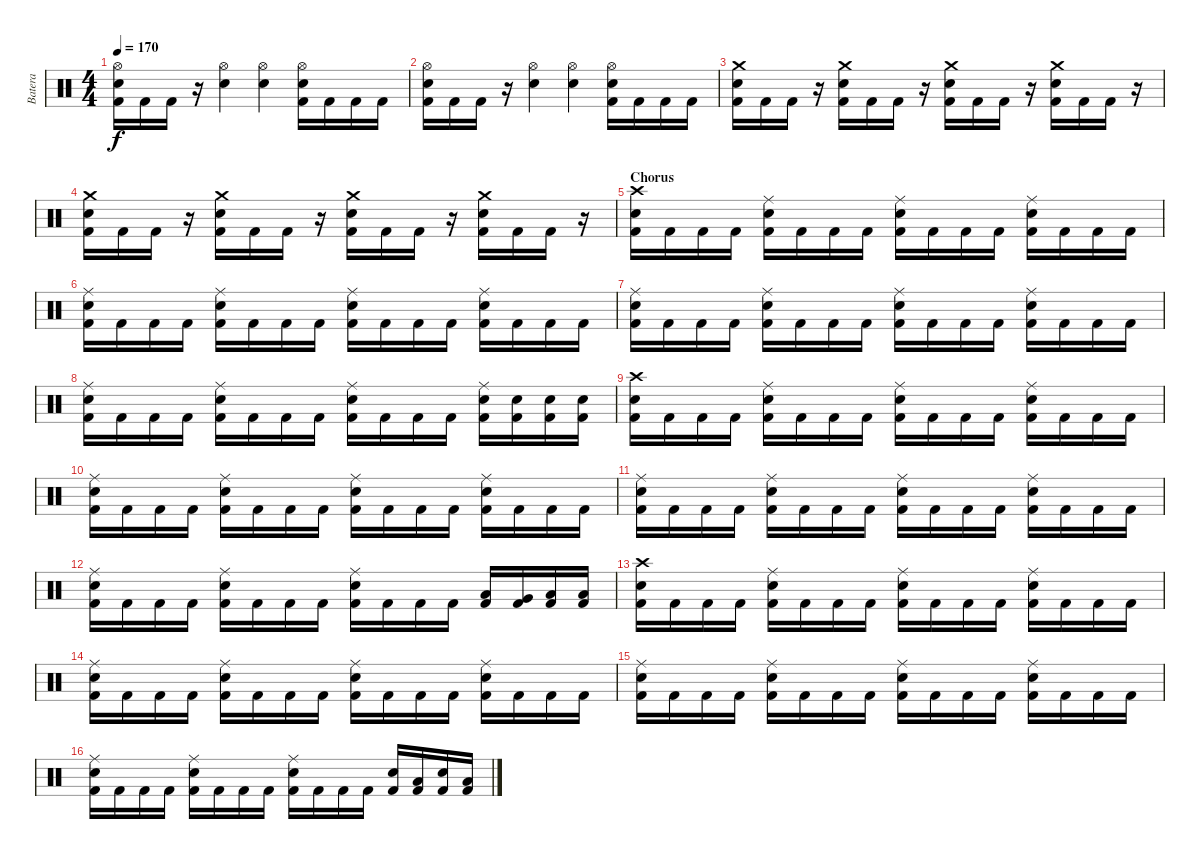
\track ("Batera" "Batera") {instrument percussion}
\staff {score}
\articulation defaults
\ts (4 4)
\tempo 170
\clef neutral
\ks c
("Hi-Hat (open)" "Electric Snare (hit)" "Kick (hit) 2").16{dy f} "Kick (hit) 2".16 "Kick (hit) 2".16 r.16 ("Hi-Hat (open)" "Electric Snare (hit)").4 ("Hi-Hat (open)" "Electric Snare (hit)").4 ("Hi-Hat (open)" "Electric Snare (hit)" "Kick (hit) 2").16 "Kick (hit) 2".16 "Kick (hit) 2".16 "Kick (hit) 2".16 |
("Hi-Hat (open)" "Electric Snare (hit)" "Kick (hit) 2").16 "Kick (hit) 2".16 "Kick (hit) 2".16 r.16 ("Hi-Hat (open)" "Electric Snare (hit)").4 ("Hi-Hat (open)" "Electric Snare (hit)").4 ("Hi-Hat (open)" "Electric Snare (hit)" "Kick (hit) 2").16 "Kick (hit) 2".16 "Kick (hit) 2".16 "Kick (hit) 2".16 |
("Crash medium (hit)" "Electric Snare (hit)" "Kick (hit) 2").16 "Kick (hit) 2".16 "Kick (hit) 2".16 r.16 ("Crash medium (hit)" "Electric Snare (hit)" "Kick (hit) 2").16 "Kick (hit) 2".16 "Kick (hit) 2".16 r.16 ("Crash medium (hit)" "Electric Snare (hit)" "Kick (hit) 2").16 "Kick (hit) 2".16 "Kick (hit) 2".16 r.16 ("Crash medium (hit)" "Electric Snare (hit)" "Kick (hit) 2").16 "Kick (hit) 2".16 "Kick (hit) 2".16 r.16 |
("Crash medium (hit)" "Electric Snare (hit)" "Kick (hit) 2").16 "Kick (hit) 2".16 "Kick (hit) 2".16 r.16 ("Crash medium (hit)" "Electric Snare (hit)" "Kick (hit) 2").16 "Kick (hit) 2".16 "Kick (hit) 2".16 r.16 ("Crash medium (hit)" "Electric Snare (hit)" "Kick (hit) 2").16 "Kick (hit) 2".16 "Kick (hit) 2".16 r.16 ("Crash medium (hit)" "Electric Snare (hit)" "Kick (hit) 2").16 "Kick (hit) 2".16 "Kick (hit) 2".16 r.16 |
\section ("" "Chorus")
("Crash high (hit)" "Electric Snare (hit)" "Kick (hit) 2").16 "Kick (hit) 2".16 "Kick (hit) 2".16 "Kick (hit) 2".16 ("Ride (middle)" "Electric Snare (hit)" "Kick (hit) 2").16 "Kick (hit) 2".16 "Kick (hit) 2".16 "Kick (hit) 2".16 ("Ride (middle)" "Electric Snare (hit)" "Kick (hit) 2").16 "Kick (hit) 2".16 "Kick (hit) 2".16 "Kick (hit) 2".16 ("Ride (middle)" "Electric Snare (hit)" "Kick (hit) 2").16 "Kick (hit) 2".16 "Kick (hit) 2".16 "Kick (hit) 2".16 |
("Ride (middle)" "Electric Snare (hit)" "Kick (hit) 2").16 "Kick (hit) 2".16 "Kick (hit) 2".16 "Kick (hit) 2".16 ("Ride (middle)" "Electric Snare (hit)" "Kick (hit) 2").16 "Kick (hit) 2".16 "Kick (hit) 2".16 "Kick (hit) 2".16 ("Ride (middle)" "Electric Snare (hit)" "Kick (hit) 2").16 "Kick (hit) 2".16 "Kick (hit) 2".16 "Kick (hit) 2".16 ("Ride (middle)" "Electric Snare (hit)" "Kick (hit) 2").16 "Kick (hit) 2".16 "Kick (hit) 2".16 "Kick (hit) 2".16 |
("Ride (middle)" "Electric Snare (hit)" "Kick (hit) 2").16 "Kick (hit) 2".16 "Kick (hit) 2".16 "Kick (hit) 2".16 ("Ride (middle)" "Electric Snare (hit)" "Kick (hit) 2").16 "Kick (hit) 2".16 "Kick (hit) 2".16 "Kick (hit) 2".16 ("Ride (middle)" "Electric Snare (hit)" "Kick (hit) 2").16 "Kick (hit) 2".16 "Kick (hit) 2".16 "Kick (hit) 2".16 ("Ride (middle)" "Electric Snare (hit)" "Kick (hit) 2").16 "Kick (hit) 2".16 "Kick (hit) 2".16 "Kick (hit) 2".16 |
("Ride (middle)" "Electric Snare (hit)" "Kick (hit) 2").16 "Kick (hit) 2".16 "Kick (hit) 2".16 "Kick (hit) 2".16 ("Ride (middle)" "Electric Snare (hit)" "Kick (hit) 2").16 "Kick (hit) 2".16 "Kick (hit) 2".16 "Kick (hit) 2".16 ("Ride (middle)" "Electric Snare (hit)" "Kick (hit) 2").16 "Kick (hit) 2".16 "Kick (hit) 2".16 "Kick (hit) 2".16 ("Ride (middle)" "Electric Snare (hit)" "Kick (hit) 2").16 ("Electric Snare (hit)" "Kick (hit) 2").16 ("Electric Snare (hit)" "Kick (hit) 2").16 ("Electric Snare (hit)" "Kick (hit) 2").16 |
("Crash high (hit)" "Electric Snare (hit)" "Kick (hit) 2").16 "Kick (hit) 2".16 "Kick (hit) 2".16 "Kick (hit) 2".16 ("Ride (middle)" "Electric Snare (hit)" "Kick (hit) 2").16 "Kick (hit) 2".16 "Kick (hit) 2".16 "Kick (hit) 2".16 ("Ride (middle)" "Electric Snare (hit)" "Kick (hit) 2").16 "Kick (hit) 2".16 "Kick (hit) 2".16 "Kick (hit) 2".16 ("Ride (middle)" "Electric Snare (hit)" "Kick (hit) 2").16 "Kick (hit) 2".16 "Kick (hit) 2".16 "Kick (hit) 2".16 |
("Ride (middle)" "Electric Snare (hit)" "Kick (hit) 2").16 "Kick (hit) 2".16 "Kick (hit) 2".16 "Kick (hit) 2".16 ("Ride (middle)" "Electric Snare (hit)" "Kick (hit) 2").16 "Kick (hit) 2".16 "Kick (hit) 2".16 "Kick (hit) 2".16 ("Ride (middle)" "Electric Snare (hit)" "Kick (hit) 2").16 "Kick (hit) 2".16 "Kick (hit) 2".16 "Kick (hit) 2".16 ("Ride (middle)" "Electric Snare (hit)" "Kick (hit) 2").16 "Kick (hit) 2".16 "Kick (hit) 2".16 "Kick (hit) 2".16 |
("Ride (middle)" "Electric Snare (hit)" "Kick (hit) 2").16 "Kick (hit) 2".16 "Kick (hit) 2".16 "Kick (hit) 2".16 ("Ride (middle)" "Electric Snare (hit)" "Kick (hit) 2").16 "Kick (hit) 2".16 "Kick (hit) 2".16 "Kick (hit) 2".16 ("Ride (middle)" "Electric Snare (hit)" "Kick (hit) 2").16 "Kick (hit) 2".16 "Kick (hit) 2".16 "Kick (hit) 2".16 ("Ride (middle)" "Electric Snare (hit)" "Kick (hit) 2").16 "Kick (hit) 2".16 "Kick (hit) 2".16 "Kick (hit) 2".16 |
("Ride (middle)" "Electric Snare (hit)" "Kick (hit) 2").16 "Kick (hit) 2".16 "Kick (hit) 2".16 "Kick (hit) 2".16 ("Ride (middle)" "Electric Snare (hit)" "Kick (hit) 2").16 "Kick (hit) 2".16 "Kick (hit) 2".16 "Kick (hit) 2".16 ("Ride (middle)" "Electric Snare (hit)" "Kick (hit) 2").16 "Kick (hit) 2".16 "Kick (hit) 2".16 "Kick (hit) 2".16 ("Low Floor Tom (hit)" "Kick (hit) 2").16 ("Very Low Tom (hit)" "Kick (hit) 2").16 ("Low Floor Tom (hit)" "Kick (hit) 2").16 ("Low Tom (hit)" "Kick (hit) 2").16 |
("Crash high (hit)" "Electric Snare (hit)" "Kick (hit) 2").16 "Kick (hit) 2".16 "Kick (hit) 2".16 "Kick (hit) 2".16 ("Ride (middle)" "Electric Snare (hit)" "Kick (hit) 2").16 "Kick (hit) 2".16 "Kick (hit) 2".16 "Kick (hit) 2".16 ("Ride (middle)" "Electric Snare (hit)" "Kick (hit) 2").16 "Kick (hit) 2".16 "Kick (hit) 2".16 "Kick (hit) 2".16 ("Ride (middle)" "Electric Snare (hit)" "Kick (hit) 2").16 "Kick (hit) 2".16 "Kick (hit) 2".16 "Kick (hit) 2".16 |
("Ride (middle)" "Electric Snare (hit)" "Kick (hit) 2").16 "Kick (hit) 2".16 "Kick (hit) 2".16 "Kick (hit) 2".16 ("Ride (middle)" "Electric Snare (hit)" "Kick (hit) 2").16 "Kick (hit) 2".16 "Kick (hit) 2".16 "Kick (hit) 2".16 ("Ride (middle)" "Electric Snare (hit)" "Kick (hit) 2").16 "Kick (hit) 2".16 "Kick (hit) 2".16 "Kick (hit) 2".16 ("Ride (middle)" "Electric Snare (hit)" "Kick (hit) 2").16 "Kick (hit) 2".16 "Kick (hit) 2".16 "Kick (hit) 2".16 |
("Ride (middle)" "Electric Snare (hit)" "Kick (hit) 2").16 "Kick (hit) 2".16 "Kick (hit) 2".16 "Kick (hit) 2".16 ("Ride (middle)" "Electric Snare (hit)" "Kick (hit) 2").16 "Kick (hit) 2".16 "Kick (hit) 2".16 "Kick (hit) 2".16 ("Ride (middle)" "Electric Snare (hit)" "Kick (hit) 2").16 "Kick (hit) 2".16 "Kick (hit) 2".16 "Kick (hit) 2".16 ("Ride (middle)" "Electric Snare (hit)" "Kick (hit) 2").16 "Kick (hit) 2".16 "Kick (hit) 2".16 "Kick (hit) 2".16 |
("Ride (middle)" "Electric Snare (hit)" "Kick (hit) 2").16 "Kick (hit) 2".16 "Kick (hit) 2".16 "Kick (hit) 2".16 ("Ride (middle)" "Electric Snare (hit)" "Kick (hit) 2").16 "Kick (hit) 2".16 "Kick (hit) 2".16 "Kick (hit) 2".16 ("Ride (middle)" "Electric Snare (hit)" "Kick (hit) 2").16 "Kick (hit) 2".16 "Kick (hit) 2".16 "Kick (hit) 2".16 ("Electric Snare (hit)" "Kick (hit) 2").16 ("Low Floor Tom (hit)" "Kick (hit) 2").16 ("Electric Snare (hit)" "Kick (hit) 2").16 ("Low Floor Tom (hit)" "Kick (hit) 2").16
